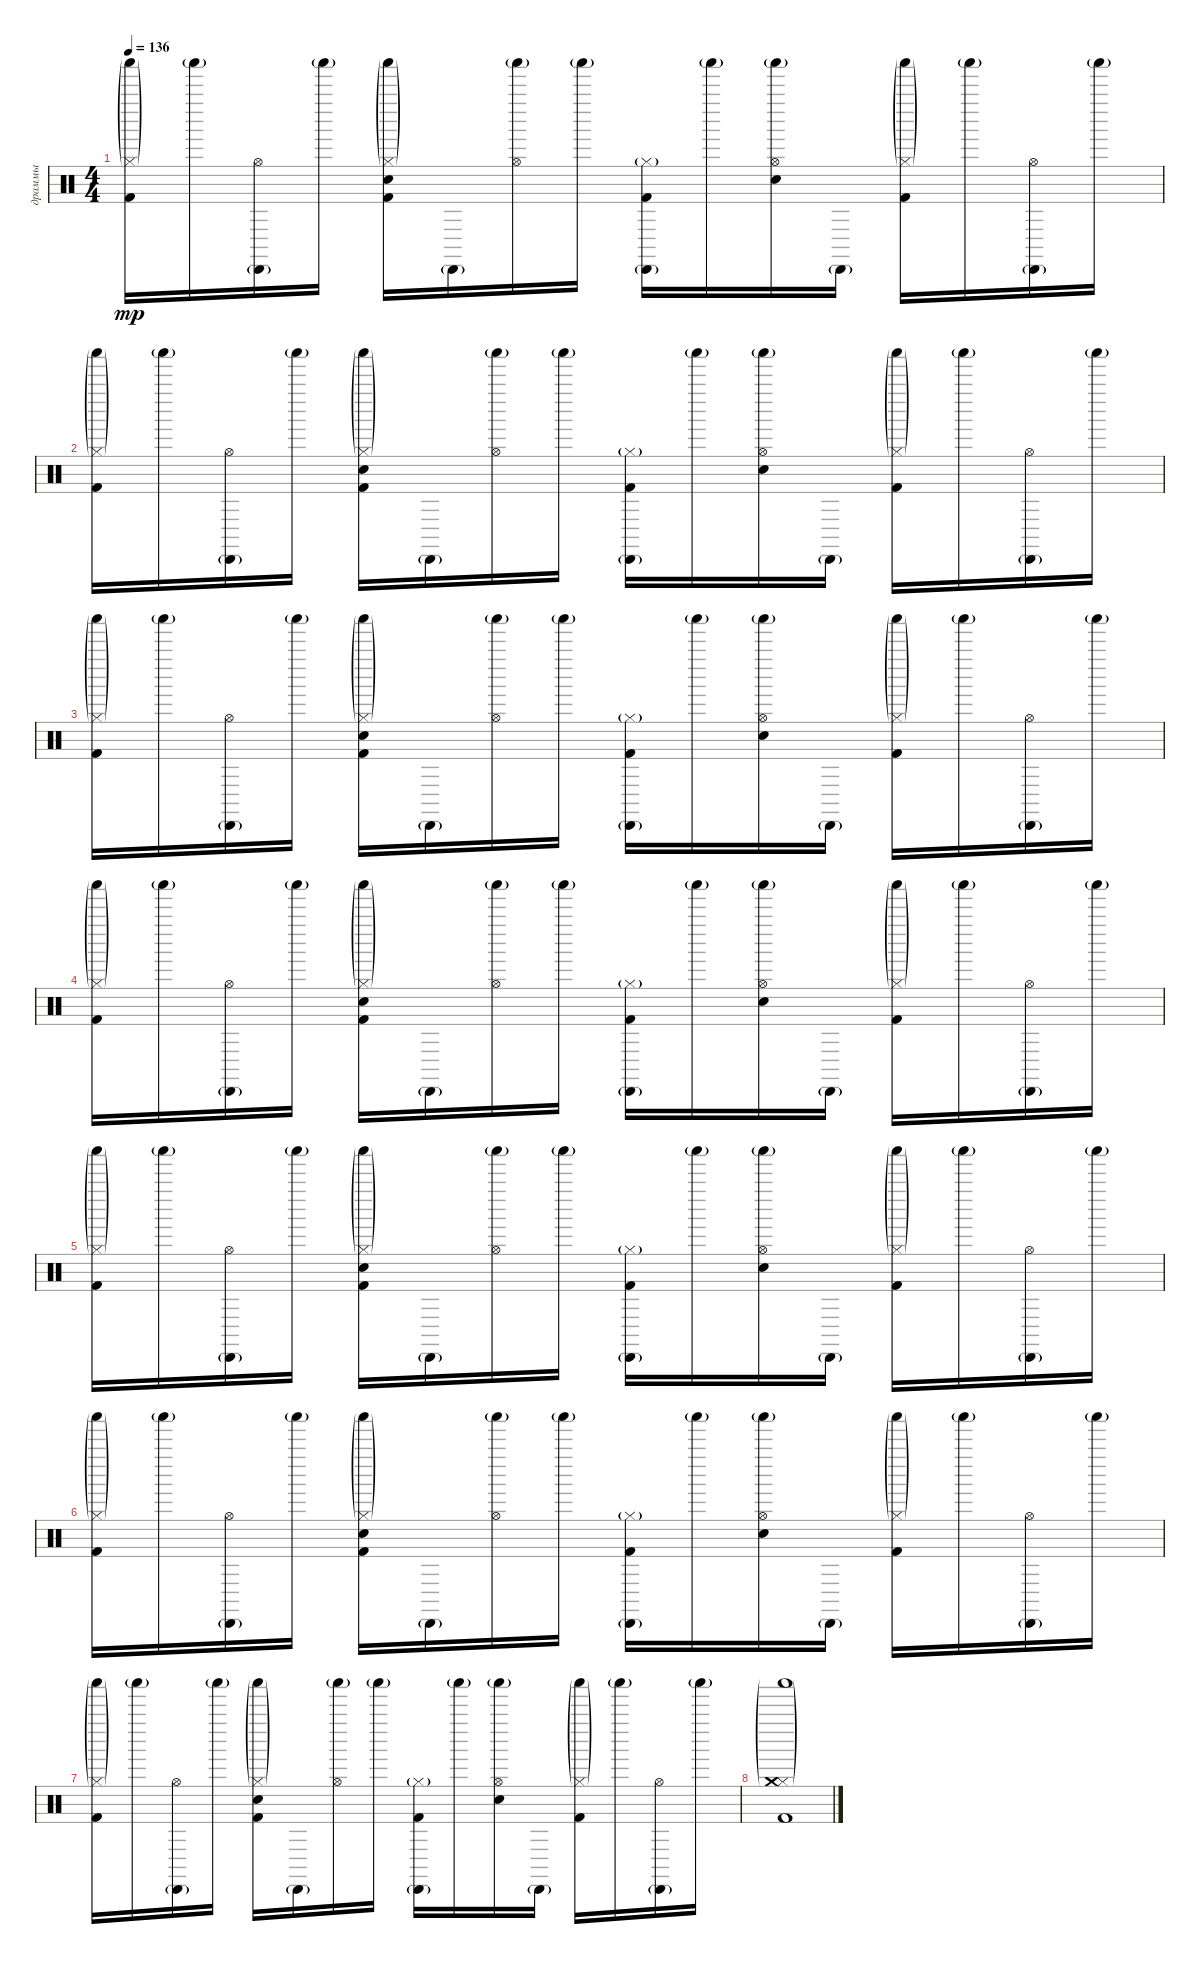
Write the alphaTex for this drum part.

\track ("драммы" "драммы") {instrument percussion}
\staff {score}
\articulation defaults
\ts (4 4)
\tempo 136
\clef neutral
\ks c
("Shaker (hit)"{g} "Kick (hit) 2" "Hi-Hat (closed)"{g}).16{dy mp} "Shaker (hit)"{g}.16 ("Cabasa (hit)"{g} "Hi-Hat (open)").16 "Shaker (hit)"{g}.16 ("Shaker (hit)"{g} "Snare (hit) 2" "Kick (hit) 2" "Hi-Hat (closed)"{g}).16 "Cabasa (hit)"{g}.16 ("Shaker (hit)"{g} "Hi-Hat (open)").16 "Shaker (hit)"{g}.16 ("Cabasa (hit)"{g} "Kick (hit) 2" "Hi-Hat (closed)"{g}).16 "Shaker (hit)"{g}.16 ("Shaker (hit)"{g} "Snare (hit) 2" "Hi-Hat (open)").16 "Cabasa (hit)"{g}.16 ("Shaker (hit)"{g} "Kick (hit) 2" "Hi-Hat (closed)"{g}).16 "Shaker (hit)"{g}.16 ("Cabasa (hit)"{g} "Hi-Hat (open)").16 "Shaker (hit)"{g}.16 |
("Shaker (hit)"{g} "Kick (hit) 2" "Hi-Hat (closed)"{g}).16 "Shaker (hit)"{g}.16 ("Cabasa (hit)"{g} "Hi-Hat (open)").16 "Shaker (hit)"{g}.16 ("Shaker (hit)"{g} "Snare (hit) 2" "Kick (hit) 2" "Hi-Hat (closed)"{g}).16 "Cabasa (hit)"{g}.16 ("Shaker (hit)"{g} "Hi-Hat (open)").16 "Shaker (hit)"{g}.16 ("Cabasa (hit)"{g} "Kick (hit) 2" "Hi-Hat (closed)"{g}).16 "Shaker (hit)"{g}.16 ("Shaker (hit)"{g} "Snare (hit) 2" "Hi-Hat (open)").16 "Cabasa (hit)"{g}.16 ("Shaker (hit)"{g} "Kick (hit) 2" "Hi-Hat (closed)"{g}).16 "Shaker (hit)"{g}.16 ("Cabasa (hit)"{g} "Hi-Hat (open)").16 "Shaker (hit)"{g}.16 |
("Shaker (hit)"{g} "Kick (hit) 2" "Hi-Hat (closed)"{g}).16 "Shaker (hit)"{g}.16 ("Cabasa (hit)"{g} "Hi-Hat (open)").16 "Shaker (hit)"{g}.16 ("Shaker (hit)"{g} "Snare (hit) 2" "Kick (hit) 2" "Hi-Hat (closed)"{g}).16 "Cabasa (hit)"{g}.16 ("Shaker (hit)"{g} "Hi-Hat (open)").16 "Shaker (hit)"{g}.16 ("Cabasa (hit)"{g} "Kick (hit) 2" "Hi-Hat (closed)"{g}).16 "Shaker (hit)"{g}.16 ("Shaker (hit)"{g} "Snare (hit) 2" "Hi-Hat (open)").16 "Cabasa (hit)"{g}.16 ("Shaker (hit)"{g} "Kick (hit) 2" "Hi-Hat (closed)"{g}).16 "Shaker (hit)"{g}.16 ("Cabasa (hit)"{g} "Hi-Hat (open)").16 "Shaker (hit)"{g}.16 |
("Shaker (hit)"{g} "Kick (hit) 2" "Hi-Hat (closed)"{g}).16 "Shaker (hit)"{g}.16 ("Cabasa (hit)"{g} "Hi-Hat (open)").16 "Shaker (hit)"{g}.16 ("Shaker (hit)"{g} "Snare (hit) 2" "Kick (hit) 2" "Hi-Hat (closed)"{g}).16 "Cabasa (hit)"{g}.16 ("Shaker (hit)"{g} "Hi-Hat (open)").16 "Shaker (hit)"{g}.16 ("Cabasa (hit)"{g} "Kick (hit) 2" "Hi-Hat (closed)"{g}).16 "Shaker (hit)"{g}.16 ("Shaker (hit)"{g} "Snare (hit) 2" "Hi-Hat (open)").16 "Cabasa (hit)"{g}.16 ("Shaker (hit)"{g} "Kick (hit) 2" "Hi-Hat (closed)"{g}).16 "Shaker (hit)"{g}.16 ("Cabasa (hit)"{g} "Hi-Hat (open)").16 "Shaker (hit)"{g}.16 |
("Shaker (hit)"{g} "Kick (hit) 2" "Hi-Hat (closed)"{g}).16 "Shaker (hit)"{g}.16 ("Cabasa (hit)"{g} "Hi-Hat (open)").16 "Shaker (hit)"{g}.16 ("Shaker (hit)"{g} "Snare (hit) 2" "Kick (hit) 2" "Hi-Hat (closed)"{g}).16 "Cabasa (hit)"{g}.16 ("Shaker (hit)"{g} "Hi-Hat (open)").16 "Shaker (hit)"{g}.16 ("Cabasa (hit)"{g} "Kick (hit) 2" "Hi-Hat (closed)"{g}).16 "Shaker (hit)"{g}.16 ("Shaker (hit)"{g} "Snare (hit) 2" "Hi-Hat (open)").16 "Cabasa (hit)"{g}.16 ("Shaker (hit)"{g} "Kick (hit) 2" "Hi-Hat (closed)"{g}).16 "Shaker (hit)"{g}.16 ("Cabasa (hit)"{g} "Hi-Hat (open)").16 "Shaker (hit)"{g}.16 |
("Shaker (hit)"{g} "Kick (hit) 2" "Hi-Hat (closed)"{g}).16 "Shaker (hit)"{g}.16 ("Cabasa (hit)"{g} "Hi-Hat (open)").16 "Shaker (hit)"{g}.16 ("Shaker (hit)"{g} "Snare (hit) 2" "Kick (hit) 2" "Hi-Hat (closed)"{g}).16 "Cabasa (hit)"{g}.16 ("Shaker (hit)"{g} "Hi-Hat (open)").16 "Shaker (hit)"{g}.16 ("Cabasa (hit)"{g} "Kick (hit) 2" "Hi-Hat (closed)"{g}).16 "Shaker (hit)"{g}.16 ("Shaker (hit)"{g} "Snare (hit) 2" "Hi-Hat (open)").16 "Cabasa (hit)"{g}.16 ("Shaker (hit)"{g} "Kick (hit) 2" "Hi-Hat (closed)"{g}).16 "Shaker (hit)"{g}.16 ("Cabasa (hit)"{g} "Hi-Hat (open)").16 "Shaker (hit)"{g}.16 |
("Shaker (hit)"{g} "Kick (hit) 2" "Hi-Hat (closed)"{g}).16 "Shaker (hit)"{g}.16 ("Cabasa (hit)"{g} "Hi-Hat (open)").16 "Shaker (hit)"{g}.16 ("Shaker (hit)"{g} "Snare (hit) 2" "Kick (hit) 2" "Hi-Hat (closed)"{g}).16 "Cabasa (hit)"{g}.16 ("Shaker (hit)"{g} "Hi-Hat (open)").16 "Shaker (hit)"{g}.16 ("Cabasa (hit)"{g} "Kick (hit) 2" "Hi-Hat (closed)"{g}).16 "Shaker (hit)"{g}.16 ("Shaker (hit)"{g} "Snare (hit) 2" "Hi-Hat (open)").16 "Cabasa (hit)"{g}.16 ("Shaker (hit)"{g} "Kick (hit) 2" "Hi-Hat (closed)"{g}).16 "Shaker (hit)"{g}.16 ("Cabasa (hit)"{g} "Hi-Hat (open)").16 "Shaker (hit)"{g}.16 |
("Shaker (hit)"{g} "Kick (hit) 2" "Hi-Hat (closed)"{g} "Crash medium (hit)").1
